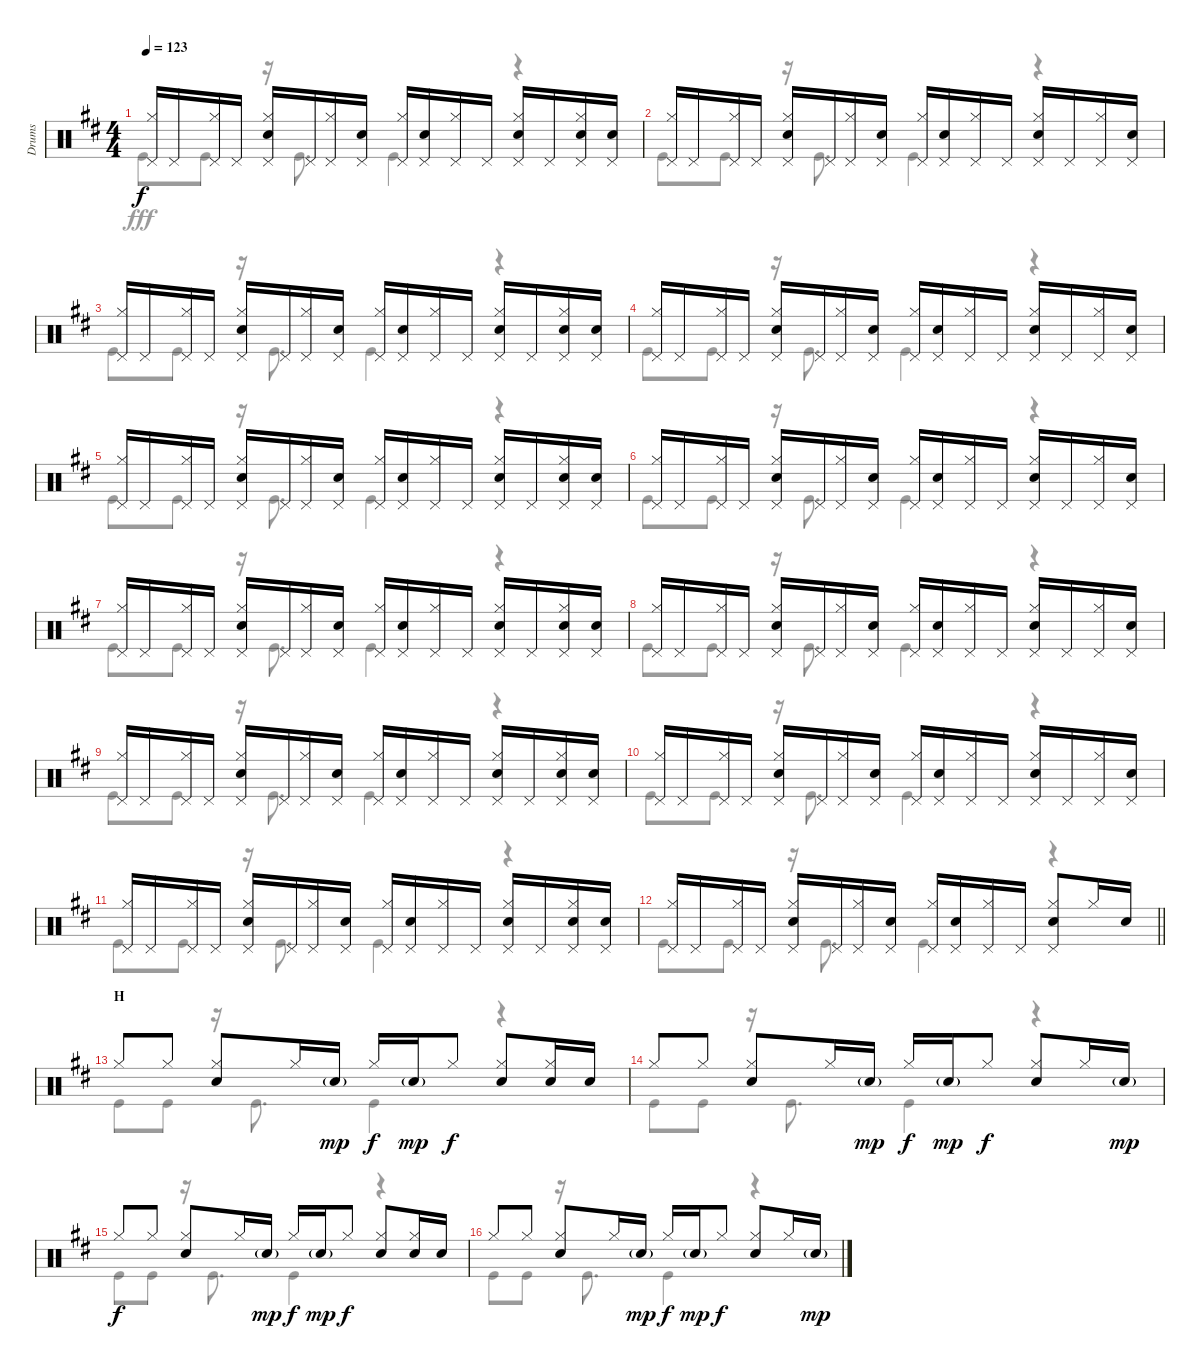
\track ("Drums" "Drums") {instrument percussion}
\staff {score}
\articulation defaults
\voice
\ts (4 4)
\tempo 123
\clef neutral
\ks d
("Hi-Hat (closed)" "Pedal Hi-Hat (hit)").16{dy f} "Pedal Hi-Hat (hit)".16 ("Hi-Hat (closed)" "Pedal Hi-Hat (hit)").16 "Pedal Hi-Hat (hit)".16 ("Hi-Hat (closed)" "Snare (hit) 2" "Pedal Hi-Hat (hit)").16 "Pedal Hi-Hat (hit)".16 ("Hi-Hat (closed)" "Pedal Hi-Hat (hit)").16 ("Pedal Hi-Hat (hit)" "Snare (hit) 2").16 ("Hi-Hat (closed)" "Pedal Hi-Hat (hit)").16 ("Pedal Hi-Hat (hit)" "Snare (hit) 2").16 ("Hi-Hat (closed)" "Pedal Hi-Hat (hit)").16 "Pedal Hi-Hat (hit)".16 ("Hi-Hat (closed)" "Snare (hit) 2" "Pedal Hi-Hat (hit)").16 "Pedal Hi-Hat (hit)".16 ("Hi-Hat (closed)" "Snare (hit) 2" "Pedal Hi-Hat (hit)").16 ("Pedal Hi-Hat (hit)" "Snare (hit) 2").16 |
("Hi-Hat (closed)" "Pedal Hi-Hat (hit)").16 "Pedal Hi-Hat (hit)".16 ("Hi-Hat (closed)" "Pedal Hi-Hat (hit)").16 "Pedal Hi-Hat (hit)".16 ("Hi-Hat (closed)" "Snare (hit) 2" "Pedal Hi-Hat (hit)").16 "Pedal Hi-Hat (hit)".16 ("Hi-Hat (closed)" "Pedal Hi-Hat (hit)").16 ("Pedal Hi-Hat (hit)" "Snare (hit) 2").16 ("Hi-Hat (closed)" "Pedal Hi-Hat (hit)").16 ("Pedal Hi-Hat (hit)" "Snare (hit) 2").16 ("Hi-Hat (closed)" "Pedal Hi-Hat (hit)").16 "Pedal Hi-Hat (hit)".16 ("Hi-Hat (closed)" "Snare (hit) 2" "Pedal Hi-Hat (hit)").16 "Pedal Hi-Hat (hit)".16 ("Hi-Hat (closed)" "Pedal Hi-Hat (hit)").16 ("Pedal Hi-Hat (hit)" "Snare (hit) 2").16 |
("Hi-Hat (closed)" "Pedal Hi-Hat (hit)").16 "Pedal Hi-Hat (hit)".16 ("Hi-Hat (closed)" "Pedal Hi-Hat (hit)").16 "Pedal Hi-Hat (hit)".16 ("Hi-Hat (closed)" "Snare (hit) 2" "Pedal Hi-Hat (hit)").16 "Pedal Hi-Hat (hit)".16 ("Hi-Hat (closed)" "Pedal Hi-Hat (hit)").16 ("Pedal Hi-Hat (hit)" "Snare (hit) 2").16 ("Hi-Hat (closed)" "Pedal Hi-Hat (hit)").16 ("Pedal Hi-Hat (hit)" "Snare (hit) 2").16 ("Hi-Hat (closed)" "Pedal Hi-Hat (hit)").16 "Pedal Hi-Hat (hit)".16 ("Hi-Hat (closed)" "Snare (hit) 2" "Pedal Hi-Hat (hit)").16 "Pedal Hi-Hat (hit)".16 ("Hi-Hat (closed)" "Snare (hit) 2" "Pedal Hi-Hat (hit)").16 ("Pedal Hi-Hat (hit)" "Snare (hit) 2").16 |
("Hi-Hat (closed)" "Pedal Hi-Hat (hit)").16 "Pedal Hi-Hat (hit)".16 ("Hi-Hat (closed)" "Pedal Hi-Hat (hit)").16 "Pedal Hi-Hat (hit)".16 ("Hi-Hat (closed)" "Snare (hit) 2" "Pedal Hi-Hat (hit)").16 "Pedal Hi-Hat (hit)".16 ("Hi-Hat (closed)" "Pedal Hi-Hat (hit)").16 ("Pedal Hi-Hat (hit)" "Snare (hit) 2").16 ("Hi-Hat (closed)" "Pedal Hi-Hat (hit)").16 ("Pedal Hi-Hat (hit)" "Snare (hit) 2").16 ("Hi-Hat (closed)" "Pedal Hi-Hat (hit)").16 "Pedal Hi-Hat (hit)".16 ("Hi-Hat (closed)" "Snare (hit) 2" "Pedal Hi-Hat (hit)").16 "Pedal Hi-Hat (hit)".16 ("Hi-Hat (closed)" "Pedal Hi-Hat (hit)").16 ("Pedal Hi-Hat (hit)" "Snare (hit) 2").16 |
("Hi-Hat (closed)" "Pedal Hi-Hat (hit)").16 "Pedal Hi-Hat (hit)".16 ("Hi-Hat (closed)" "Pedal Hi-Hat (hit)").16 "Pedal Hi-Hat (hit)".16 ("Hi-Hat (closed)" "Snare (hit) 2" "Pedal Hi-Hat (hit)").16 "Pedal Hi-Hat (hit)".16 ("Hi-Hat (closed)" "Pedal Hi-Hat (hit)").16 ("Pedal Hi-Hat (hit)" "Snare (hit) 2").16 ("Hi-Hat (closed)" "Pedal Hi-Hat (hit)").16 ("Pedal Hi-Hat (hit)" "Snare (hit) 2").16 ("Hi-Hat (closed)" "Pedal Hi-Hat (hit)").16 "Pedal Hi-Hat (hit)".16 ("Hi-Hat (closed)" "Snare (hit) 2" "Pedal Hi-Hat (hit)").16 "Pedal Hi-Hat (hit)".16 ("Hi-Hat (closed)" "Snare (hit) 2" "Pedal Hi-Hat (hit)").16 ("Pedal Hi-Hat (hit)" "Snare (hit) 2").16 |
("Hi-Hat (closed)" "Pedal Hi-Hat (hit)").16 "Pedal Hi-Hat (hit)".16 ("Hi-Hat (closed)" "Pedal Hi-Hat (hit)").16 "Pedal Hi-Hat (hit)".16 ("Hi-Hat (closed)" "Snare (hit) 2" "Pedal Hi-Hat (hit)").16 "Pedal Hi-Hat (hit)".16 ("Hi-Hat (closed)" "Pedal Hi-Hat (hit)").16 ("Pedal Hi-Hat (hit)" "Snare (hit) 2").16 ("Hi-Hat (closed)" "Pedal Hi-Hat (hit)").16 ("Pedal Hi-Hat (hit)" "Snare (hit) 2").16 ("Hi-Hat (closed)" "Pedal Hi-Hat (hit)").16 "Pedal Hi-Hat (hit)".16 ("Hi-Hat (closed)" "Snare (hit) 2" "Pedal Hi-Hat (hit)").16 "Pedal Hi-Hat (hit)".16 ("Hi-Hat (closed)" "Pedal Hi-Hat (hit)").16 ("Pedal Hi-Hat (hit)" "Snare (hit) 2").16 |
("Hi-Hat (closed)" "Pedal Hi-Hat (hit)").16 "Pedal Hi-Hat (hit)".16 ("Hi-Hat (closed)" "Pedal Hi-Hat (hit)").16 "Pedal Hi-Hat (hit)".16 ("Hi-Hat (closed)" "Snare (hit) 2" "Pedal Hi-Hat (hit)").16 "Pedal Hi-Hat (hit)".16 ("Hi-Hat (closed)" "Pedal Hi-Hat (hit)").16 ("Pedal Hi-Hat (hit)" "Snare (hit) 2").16 ("Hi-Hat (closed)" "Pedal Hi-Hat (hit)").16 ("Pedal Hi-Hat (hit)" "Snare (hit) 2").16 ("Hi-Hat (closed)" "Pedal Hi-Hat (hit)").16 "Pedal Hi-Hat (hit)".16 ("Hi-Hat (closed)" "Snare (hit) 2" "Pedal Hi-Hat (hit)").16 "Pedal Hi-Hat (hit)".16 ("Hi-Hat (closed)" "Snare (hit) 2" "Pedal Hi-Hat (hit)").16 ("Pedal Hi-Hat (hit)" "Snare (hit) 2").16 |
("Hi-Hat (closed)" "Pedal Hi-Hat (hit)").16 "Pedal Hi-Hat (hit)".16 ("Hi-Hat (closed)" "Pedal Hi-Hat (hit)").16 "Pedal Hi-Hat (hit)".16 ("Hi-Hat (closed)" "Snare (hit) 2" "Pedal Hi-Hat (hit)").16 "Pedal Hi-Hat (hit)".16 ("Hi-Hat (closed)" "Pedal Hi-Hat (hit)").16 ("Pedal Hi-Hat (hit)" "Snare (hit) 2").16 ("Hi-Hat (closed)" "Pedal Hi-Hat (hit)").16 ("Pedal Hi-Hat (hit)" "Snare (hit) 2").16 ("Hi-Hat (closed)" "Pedal Hi-Hat (hit)").16 "Pedal Hi-Hat (hit)".16 ("Hi-Hat (closed)" "Snare (hit) 2" "Pedal Hi-Hat (hit)").16 "Pedal Hi-Hat (hit)".16 ("Hi-Hat (closed)" "Pedal Hi-Hat (hit)").16 ("Pedal Hi-Hat (hit)" "Snare (hit) 2").16 |
("Hi-Hat (closed)" "Pedal Hi-Hat (hit)").16 "Pedal Hi-Hat (hit)".16 ("Hi-Hat (closed)" "Pedal Hi-Hat (hit)").16 "Pedal Hi-Hat (hit)".16 ("Hi-Hat (closed)" "Snare (hit) 2" "Pedal Hi-Hat (hit)").16 "Pedal Hi-Hat (hit)".16 ("Hi-Hat (closed)" "Pedal Hi-Hat (hit)").16 ("Pedal Hi-Hat (hit)" "Snare (hit) 2").16 ("Hi-Hat (closed)" "Pedal Hi-Hat (hit)").16 ("Pedal Hi-Hat (hit)" "Snare (hit) 2").16 ("Hi-Hat (closed)" "Pedal Hi-Hat (hit)").16 "Pedal Hi-Hat (hit)".16 ("Hi-Hat (closed)" "Snare (hit) 2" "Pedal Hi-Hat (hit)").16 "Pedal Hi-Hat (hit)".16 ("Hi-Hat (closed)" "Snare (hit) 2" "Pedal Hi-Hat (hit)").16 ("Pedal Hi-Hat (hit)" "Snare (hit) 2").16 |
("Hi-Hat (closed)" "Pedal Hi-Hat (hit)").16 "Pedal Hi-Hat (hit)".16 ("Hi-Hat (closed)" "Pedal Hi-Hat (hit)").16 "Pedal Hi-Hat (hit)".16 ("Hi-Hat (closed)" "Snare (hit) 2" "Pedal Hi-Hat (hit)").16 "Pedal Hi-Hat (hit)".16 ("Hi-Hat (closed)" "Pedal Hi-Hat (hit)").16 ("Pedal Hi-Hat (hit)" "Snare (hit) 2").16 ("Hi-Hat (closed)" "Pedal Hi-Hat (hit)").16 ("Pedal Hi-Hat (hit)" "Snare (hit) 2").16 ("Hi-Hat (closed)" "Pedal Hi-Hat (hit)").16 "Pedal Hi-Hat (hit)".16 ("Hi-Hat (closed)" "Snare (hit) 2" "Pedal Hi-Hat (hit)").16 "Pedal Hi-Hat (hit)".16 ("Hi-Hat (closed)" "Pedal Hi-Hat (hit)").16 ("Pedal Hi-Hat (hit)" "Snare (hit) 2").16 |
("Hi-Hat (closed)" "Pedal Hi-Hat (hit)").16 "Pedal Hi-Hat (hit)".16 ("Hi-Hat (closed)" "Pedal Hi-Hat (hit)").16 "Pedal Hi-Hat (hit)".16 ("Hi-Hat (closed)" "Snare (hit) 2" "Pedal Hi-Hat (hit)").16 "Pedal Hi-Hat (hit)".16 ("Hi-Hat (closed)" "Pedal Hi-Hat (hit)").16 ("Pedal Hi-Hat (hit)" "Snare (hit) 2").16 ("Hi-Hat (closed)" "Pedal Hi-Hat (hit)").16 ("Pedal Hi-Hat (hit)" "Snare (hit) 2").16 ("Hi-Hat (closed)" "Pedal Hi-Hat (hit)").16 "Pedal Hi-Hat (hit)".16 ("Hi-Hat (closed)" "Snare (hit) 2" "Pedal Hi-Hat (hit)").16 "Pedal Hi-Hat (hit)".16 ("Hi-Hat (closed)" "Snare (hit) 2" "Pedal Hi-Hat (hit)").16 ("Pedal Hi-Hat (hit)" "Snare (hit) 2").16 |
\barLineRight lightlight
("Hi-Hat (closed)" "Pedal Hi-Hat (hit)").16 "Pedal Hi-Hat (hit)".16 ("Hi-Hat (closed)" "Pedal Hi-Hat (hit)").16 "Pedal Hi-Hat (hit)".16 ("Hi-Hat (closed)" "Snare (hit) 2" "Pedal Hi-Hat (hit)").16 "Pedal Hi-Hat (hit)".16 ("Hi-Hat (closed)" "Pedal Hi-Hat (hit)").16 ("Pedal Hi-Hat (hit)" "Snare (hit) 2").16 ("Hi-Hat (closed)" "Pedal Hi-Hat (hit)").16 ("Pedal Hi-Hat (hit)" "Snare (hit) 2").16 ("Hi-Hat (closed)" "Pedal Hi-Hat (hit)").16 "Pedal Hi-Hat (hit)".16 ("Hi-Hat (closed)" "Snare (hit) 2" "Pedal Hi-Hat (hit)").8 "Hi-Hat (closed)".16 "Snare (hit) 2".16 |
\section ("" "H")
"Hi-Hat (closed)".8 "Hi-Hat (closed)".8 ("Hi-Hat (closed)" "Snare (hit) 2").8 "Hi-Hat (closed)".16 "Snare (hit) 2"{g}.16{dy mp} "Hi-Hat (closed)".16{dy f} "Snare (hit) 2"{g}.16{dy mp} "Hi-Hat (closed)".8{dy f} ("Hi-Hat (closed)" "Snare (hit) 2").8 ("Hi-Hat (closed)" "Snare (hit) 2").16 "Snare (hit) 2".16 |
"Hi-Hat (closed)".8 "Hi-Hat (closed)".8 ("Hi-Hat (closed)" "Snare (hit) 2").8 "Hi-Hat (closed)".16 "Snare (hit) 2"{g}.16{dy mp} "Hi-Hat (closed)".16{dy f} "Snare (hit) 2"{g}.16{dy mp} "Hi-Hat (closed)".8{dy f} ("Hi-Hat (closed)" "Snare (hit) 2").8 "Hi-Hat (closed)".16 "Snare (hit) 2"{g}.16{dy mp} |
"Hi-Hat (closed)".8{dy f} "Hi-Hat (closed)".8 ("Hi-Hat (closed)" "Snare (hit) 2").8 "Hi-Hat (closed)".16 "Snare (hit) 2"{g}.16{dy mp} "Hi-Hat (closed)".16{dy f} "Snare (hit) 2"{g}.16{dy mp} "Hi-Hat (closed)".8{dy f} ("Hi-Hat (closed)" "Snare (hit) 2").8 ("Hi-Hat (closed)" "Snare (hit) 2").16 "Snare (hit) 2".16 |
"Hi-Hat (closed)".8 "Hi-Hat (closed)".8 ("Hi-Hat (closed)" "Snare (hit) 2").8 "Hi-Hat (closed)".16 "Snare (hit) 2"{g}.16{dy mp} "Hi-Hat (closed)".16{dy f} "Snare (hit) 2"{g}.16{dy mp} "Hi-Hat (closed)".8{dy f} ("Hi-Hat (closed)" "Snare (hit) 2").8 "Hi-Hat (closed)".16 "Snare (hit) 2"{g}.16{dy mp}
\voice
\clef neutral
\ottava regular
\simile none
\ks d "Kick (hit)".8{dy fff} "Kick (hit)".8
r.16 "Kick (hit)".8{d} "Kick (hit)".4 r.4 |
"Kick (hit)".8 "Kick (hit)".8 r.16 "Kick (hit)".8{d} "Kick (hit)".4 r.4 |
"Kick (hit)".8 "Kick (hit)".8 r.16 "Kick (hit)".8{d} "Kick (hit)".4 r.4 |
"Kick (hit)".8 "Kick (hit)".8 r.16 "Kick (hit)".8{d} "Kick (hit)".4 r.4 |
"Kick (hit)".8 "Kick (hit)".8 r.16 "Kick (hit)".8{d} "Kick (hit)".4 r.4 |
"Kick (hit)".8 "Kick (hit)".8 r.16 "Kick (hit)".8{d} "Kick (hit)".4 r.4 |
"Kick (hit)".8 "Kick (hit)".8 r.16 "Kick (hit)".8{d} "Kick (hit)".4 r.4 |
"Kick (hit)".8 "Kick (hit)".8 r.16 "Kick (hit)".8{d} "Kick (hit)".4 r.4 |
"Kick (hit)".8 "Kick (hit)".8 r.16 "Kick (hit)".8{d} "Kick (hit)".4 r.4 |
"Kick (hit)".8 "Kick (hit)".8 r.16 "Kick (hit)".8{d} "Kick (hit)".4 r.4 |
"Kick (hit)".8 "Kick (hit)".8 r.16 "Kick (hit)".8{d} "Kick (hit)".4 r.4 |
\barLineRight lightlight "Kick (hit)".8 "Kick (hit)".8
r.16 "Kick (hit)".8{d} "Kick (hit)".4 r.4 |
"Kick (hit)".8 "Kick (hit)".8 r.16 "Kick (hit)".8{d} "Kick (hit)".4 r.4 |
"Kick (hit)".8 "Kick (hit)".8 r.16 "Kick (hit)".8{d} "Kick (hit)".4 r.4 |
"Kick (hit)".8 "Kick (hit)".8 r.16 "Kick (hit)".8{d} "Kick (hit)".4 r.4 |
"Kick (hit)".8 "Kick (hit)".8 r.16 "Kick (hit)".8{d} "Kick (hit)".4 r.4
